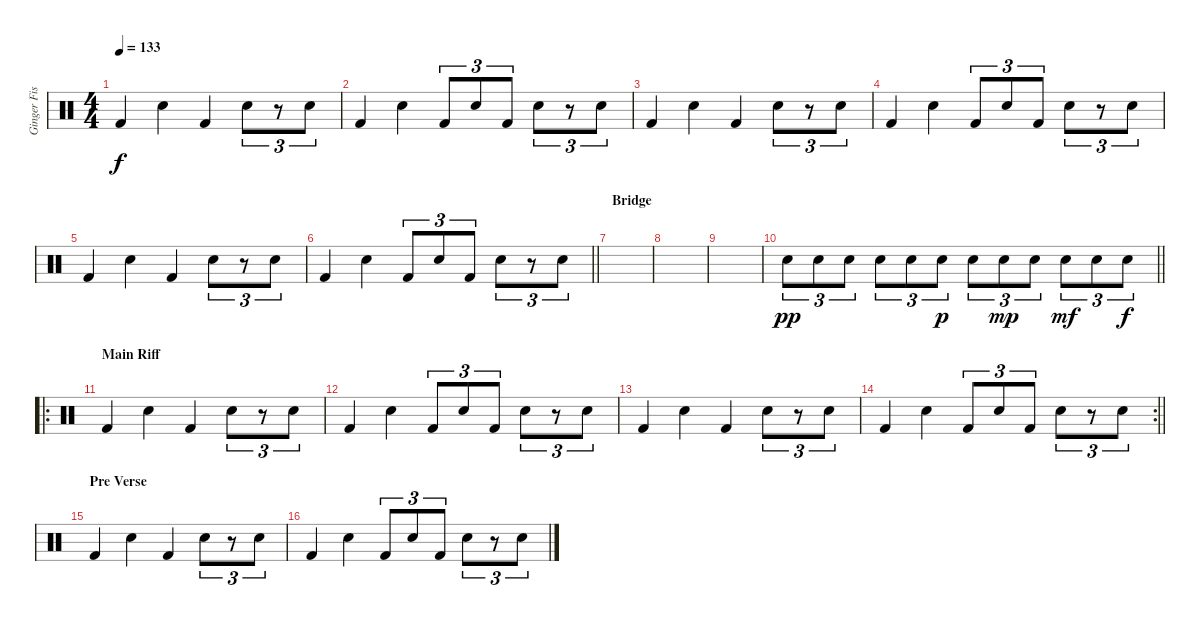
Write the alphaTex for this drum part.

\track ("Ginger Fish (Drums)" "Ginger Fis") {instrument percussion}
\staff {score}
\articulation defaults
\ts (4 4)
\tempo 133
\clef neutral
\ks c "Kick (hit) 2".4{dy f} "Snare (hit) 2".4 "Kick (hit) 2".4 "Snare (hit) 2".8{tu (3 2)}
r.8{tu (3 2)} "Snare (hit) 2".8{tu (3 2)} |
"Kick (hit) 2".4 "Snare (hit) 2".4 "Kick (hit) 2".8{tu (3 2)} "Snare (hit) 2".8{tu (3 2)} "Kick (hit) 2".8{tu (3 2)} "Snare (hit) 2".8{tu (3 2)} r.8{tu (3 2)} "Snare (hit) 2".8{tu (3 2)} |
"Kick (hit) 2".4 "Snare (hit) 2".4 "Kick (hit) 2".4 "Snare (hit) 2".8{tu (3 2)} r.8{tu (3 2)} "Snare (hit) 2".8{tu (3 2)} |
"Kick (hit) 2".4 "Snare (hit) 2".4 "Kick (hit) 2".8{tu (3 2)} "Snare (hit) 2".8{tu (3 2)} "Kick (hit) 2".8{tu (3 2)} "Snare (hit) 2".8{tu (3 2)} r.8{tu (3 2)} "Snare (hit) 2".8{tu (3 2)} |
"Kick (hit) 2".4 "Snare (hit) 2".4 "Kick (hit) 2".4 "Snare (hit) 2".8{tu (3 2)} r.8{tu (3 2)} "Snare (hit) 2".8{tu (3 2)} |
\barLineRight lightlight "Kick (hit) 2".4 "Snare (hit) 2".4 "Kick (hit) 2".8{tu (3 2)} "Snare (hit) 2".8{tu (3 2)} "Kick (hit) 2".8{tu (3 2)} "Snare (hit) 2".8{tu (3 2)}
r.8{tu (3 2)} "Snare (hit) 2".8{tu (3 2)} |
\section ("" "Bridge ")
|
|
|
\barLineRight lightlight "Snare (hit) 2".8{tu (3 2) dy pp} "Snare (hit) 2".8{tu (3 2)} "Snare (hit) 2".8{tu (3 2)} "Snare (hit) 2".8{tu (3 2)} "Snare (hit) 2".8{tu (3 2)} "Snare (hit) 2".8{tu (3 2) dy p} "Snare (hit) 2".8{tu (3 2)} "Snare (hit) 2".8{tu (3 2) dy mp} "Snare (hit) 2".8{tu (3 2)} "Snare (hit) 2".8{tu (3 2) dy mf} "Snare (hit) 2".8{tu (3 2)} "Snare (hit) 2".8{tu (3 2) dy f}
|
\ro
\section ("" "Main Riff")
"Kick (hit) 2".4 "Snare (hit) 2".4 "Kick (hit) 2".4 "Snare (hit) 2".8{tu (3 2)} r.8{tu (3 2)} "Snare (hit) 2".8{tu (3 2)} |
"Kick (hit) 2".4 "Snare (hit) 2".4 "Kick (hit) 2".8{tu (3 2)} "Snare (hit) 2".8{tu (3 2)} "Kick (hit) 2".8{tu (3 2)} "Snare (hit) 2".8{tu (3 2)} r.8{tu (3 2)} "Snare (hit) 2".8{tu (3 2)} |
"Kick (hit) 2".4 "Snare (hit) 2".4 "Kick (hit) 2".4 "Snare (hit) 2".8{tu (3 2)} r.8{tu (3 2)} "Snare (hit) 2".8{tu (3 2)} |
\rc 2
\barLineRight lightlight "Kick (hit) 2".4 "Snare (hit) 2".4 "Kick (hit) 2".8{tu (3 2)} "Snare (hit) 2".8{tu (3 2)} "Kick (hit) 2".8{tu (3 2)} "Snare (hit) 2".8{tu (3 2)}
r.8{tu (3 2)} "Snare (hit) 2".8{tu (3 2)} |
\section ("" "Pre Verse")
"Kick (hit) 2".4 "Snare (hit) 2".4 "Kick (hit) 2".4 "Snare (hit) 2".8{tu (3 2)} r.8{tu (3 2)} "Snare (hit) 2".8{tu (3 2)} |
"Kick (hit) 2".4 "Snare (hit) 2".4 "Kick (hit) 2".8{tu (3 2)} "Snare (hit) 2".8{tu (3 2)} "Kick (hit) 2".8{tu (3 2)} "Snare (hit) 2".8{tu (3 2)} r.8{tu (3 2)} "Snare (hit) 2".8{tu (3 2)}
